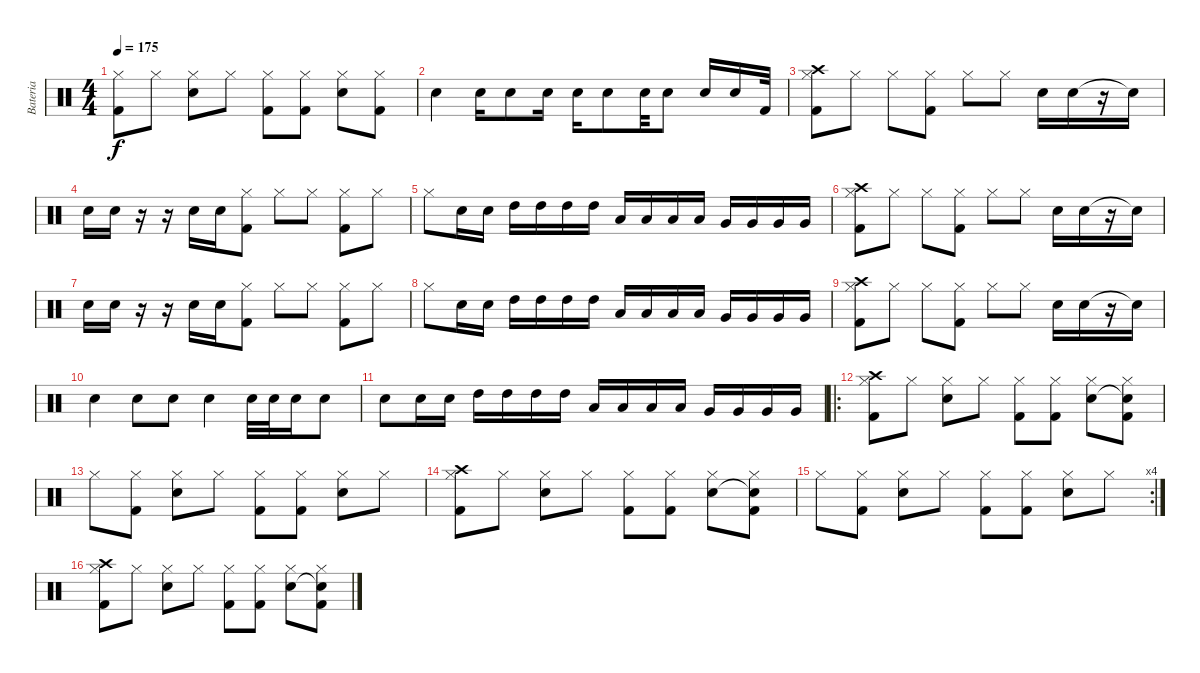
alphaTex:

\track ("Bateria" "Bateria") {instrument percussion}
\staff {score}
\articulation defaults
\ts (4 4)
\tempo 175
\clef neutral
\ks c
("Hi-Hat (closed)" "Kick (hit) 2").8{dy f} "Hi-Hat (closed)".8 ("Hi-Hat (closed)" "Snare (hit) 2").8 "Hi-Hat (closed)".8 ("Hi-Hat (closed)" "Kick (hit) 2").8 ("Hi-Hat (closed)" "Kick (hit) 2").8 ("Hi-Hat (closed)" "Snare (hit) 2").8 ("Hi-Hat (closed)" "Kick (hit) 2").8 |
"Snare (hit) 2".4 "Snare (hit) 2".16 "Snare (hit) 2".8 "Snare (hit) 2".16 "Snare (hit) 2".16 "Snare (hit) 2".8 "Snare (hit) 2".32 "Snare (hit) 2".8 "Snare (hit) 2".16 "Snare (hit) 2".16 "Kick (hit) 2".32 |
("Hi-Hat (closed)" "Crash high (hit)" "Kick (hit) 2").8 "Hi-Hat (closed)".8 "Hi-Hat (closed)".8 ("Hi-Hat (closed)" "Kick (hit) 2").8 "Hi-Hat (closed)".8 "Hi-Hat (closed)".8 "Snare (hit) 2".16 "Snare (hit) 2".16 r.16 "Snare (hit)"{t}.16 |
"Snare (hit) 2".16 "Snare (hit) 2".16 r.16 r.16 "Snare (hit) 2".16 "Snare (hit) 2".16 ("Hi-Hat (closed)" "Kick (hit) 2").8 "Hi-Hat (closed)".8 "Hi-Hat (closed)".8 ("Hi-Hat (closed)" "Kick (hit) 2").8 "Hi-Hat (closed)".8 |
"Hi-Hat (closed)".8 "Snare (hit) 2".16 "Snare (hit) 2".16 "High Tom (hit)".16 "High Tom (hit)".16 "High Tom (hit)".16 "High Tom (hit)".16 "Low Tom (hit)".16 "Low Tom (hit)".16 "Low Tom (hit)".16 "Low Tom (hit)".16 "Very Low Tom (hit)".16 "Very Low Tom (hit)".16 "Very Low Tom (hit)".16 "Very Low Tom (hit)".16 |
("Hi-Hat (closed)" "Crash high (hit)" "Kick (hit) 2").8 "Hi-Hat (closed)".8 "Hi-Hat (closed)".8 ("Hi-Hat (closed)" "Kick (hit) 2").8 "Hi-Hat (closed)".8 "Hi-Hat (closed)".8 "Snare (hit) 2".16 "Snare (hit) 2".16 r.16 "Snare (hit)"{t}.16 |
"Snare (hit) 2".16 "Snare (hit) 2".16 r.16 r.16 "Snare (hit) 2".16 "Snare (hit) 2".16 ("Hi-Hat (closed)" "Kick (hit) 2").8 "Hi-Hat (closed)".8 "Hi-Hat (closed)".8 ("Hi-Hat (closed)" "Kick (hit) 2").8 "Hi-Hat (closed)".8 |
"Hi-Hat (closed)".8 "Snare (hit) 2".16 "Snare (hit) 2".16 "High Tom (hit)".16 "High Tom (hit)".16 "High Tom (hit)".16 "High Tom (hit)".16 "Low Tom (hit)".16 "Low Tom (hit)".16 "Low Tom (hit)".16 "Low Tom (hit)".16 "Very Low Tom (hit)".16 "Very Low Tom (hit)".16 "Very Low Tom (hit)".16 "Very Low Tom (hit)".16 |
("Hi-Hat (closed)" "Crash high (hit)" "Kick (hit) 2").8 "Hi-Hat (closed)".8 "Hi-Hat (closed)".8 ("Hi-Hat (closed)" "Kick (hit) 2").8 "Hi-Hat (closed)".8 "Hi-Hat (closed)".8 "Snare (hit) 2".16 "Snare (hit) 2".16 r.16 "Snare (hit)"{t}.16 |
"Snare (hit) 2".4 "Snare (hit) 2".8 "Snare (hit) 2".8 "Snare (hit) 2".4 "Snare (hit) 2".32 "Snare (hit) 2".32 "Snare (hit) 2".16 "Snare (hit) 2".8 |
"Snare (hit) 2".8 "Snare (hit) 2".16 "Snare (hit) 2".16 "High Tom (hit)".16 "High Tom (hit)".16 "High Tom (hit)".16 "High Tom (hit)".16 "Low Tom (hit)".16 "Low Tom (hit)".16 "Low Tom (hit)".16 "Low Tom (hit)".16 "Very Low Tom (hit)".16 "Very Low Tom (hit)".16 "Very Low Tom (hit)".16 "Very Low Tom (hit)".16 |
\ro
("Hi-Hat (closed)" "Crash high (hit)" "Kick (hit) 2").8 "Hi-Hat (closed)".8 ("Hi-Hat (closed)" "Snare (hit) 2").8 "Hi-Hat (closed)".8 ("Hi-Hat (closed)" "Kick (hit) 2").8 ("Hi-Hat (closed)" "Kick (hit) 2").8 ("Hi-Hat (closed)" "Snare (hit) 2").8 ("Hi-Hat (closed)" "Snare (hit)"{t} "Kick (hit) 2").8 |
"Hi-Hat (closed)".8 ("Hi-Hat (closed)" "Kick (hit) 2").8 ("Hi-Hat (closed)" "Snare (hit) 2").8 "Hi-Hat (closed)".8 ("Hi-Hat (closed)" "Kick (hit) 2").8 ("Hi-Hat (closed)" "Kick (hit) 2").8 ("Hi-Hat (closed)" "Snare (hit) 2").8 "Hi-Hat (closed)".8 |
("Hi-Hat (closed)" "Crash high (hit)" "Kick (hit) 2").8 "Hi-Hat (closed)".8 ("Hi-Hat (closed)" "Snare (hit) 2").8 "Hi-Hat (closed)".8 ("Hi-Hat (closed)" "Kick (hit) 2").8 ("Hi-Hat (closed)" "Kick (hit) 2").8 ("Hi-Hat (closed)" "Snare (hit) 2").8 ("Hi-Hat (closed)" "Snare (hit)"{t} "Kick (hit) 2").8 |
\rc 4 "Hi-Hat (closed)".8
("Hi-Hat (closed)" "Kick (hit) 2").8 ("Hi-Hat (closed)" "Snare (hit) 2").8 "Hi-Hat (closed)".8 ("Hi-Hat (closed)" "Kick (hit) 2").8 ("Hi-Hat (closed)" "Kick (hit) 2").8 ("Hi-Hat (closed)" "Snare (hit) 2").8 "Hi-Hat (closed)".8 |
("Hi-Hat (closed)" "Crash high (hit)" "Kick (hit) 2").8 "Hi-Hat (closed)".8 ("Hi-Hat (closed)" "Snare (hit) 2").8 "Hi-Hat (closed)".8 ("Hi-Hat (closed)" "Kick (hit) 2").8 ("Hi-Hat (closed)" "Kick (hit) 2").8 ("Hi-Hat (closed)" "Snare (hit) 2").8 ("Hi-Hat (closed)" "Snare (hit)"{t} "Kick (hit) 2").8
